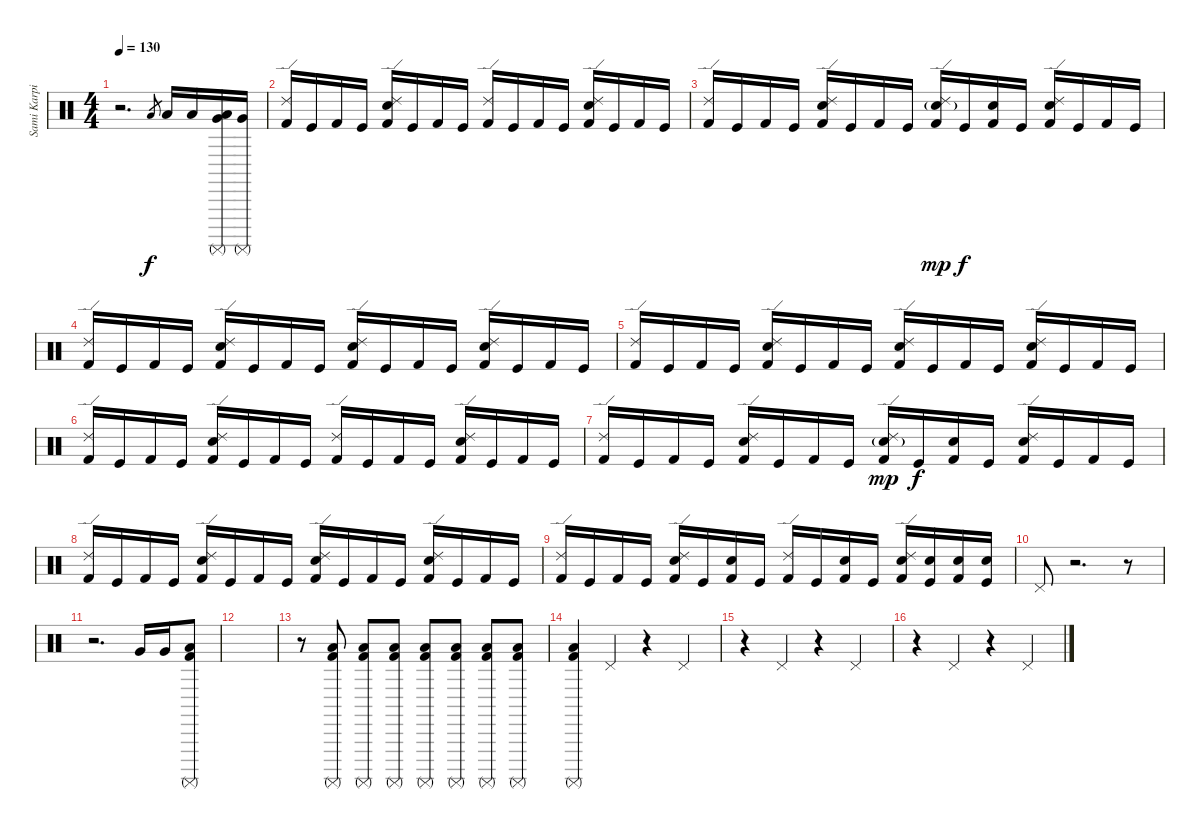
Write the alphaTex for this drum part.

\track ("Sami Karpinnen" "Sami Karpi") {instrument percussion}
\staff {score}
\articulation defaults
\ts (4 4)
\tempo 130
\clef neutral
\ks c
r.2{d dy f} "Low Tom (hit)".8{gr} "Low Tom (hit)".16 "Low Tom (hit)".16 ("Surdo (mute)" "Low Tom (hit)" "Very Low Tom (hit)").16 ("Surdo (mute)" "Very Low Tom (hit)").16 |
("Ride (edge) 2" "Kick (hit) 2").16 "Kick (hit)".16 "Kick (hit) 2".16 "Kick (hit)".16 ("Ride (edge) 2" "Electric Snare (hit)" "Kick (hit) 2").16 "Kick (hit)".16 "Kick (hit) 2".16 "Kick (hit)".16 ("Ride (edge) 2" "Kick (hit) 2").16 "Kick (hit)".16 "Kick (hit) 2".16 "Kick (hit)".16 ("Ride (edge) 2" "Electric Snare (hit)" "Kick (hit) 2").16 "Kick (hit)".16 "Kick (hit) 2".16 "Kick (hit)".16 |
("Ride (edge) 2" "Kick (hit) 2").16 "Kick (hit)".16 "Kick (hit) 2".16 "Kick (hit)".16 ("Ride (edge) 2" "Electric Snare (hit)" "Kick (hit) 2").16 "Kick (hit)".16 "Kick (hit) 2".16 "Kick (hit)".16 ("Ride (edge) 2" "Electric Snare (hit)"{g} "Kick (hit) 2").16{dy mp} "Kick (hit)".16{dy f} ("Electric Snare (hit)" "Kick (hit) 2").16 "Kick (hit)".16 ("Ride (edge) 2" "Electric Snare (hit)" "Kick (hit) 2").16 "Kick (hit)".16 "Kick (hit) 2".16 "Kick (hit)".16 |
("Ride (edge) 2" "Kick (hit) 2").16 "Kick (hit)".16 "Kick (hit) 2".16 "Kick (hit)".16 ("Ride (edge) 2" "Electric Snare (hit)" "Kick (hit) 2").16 "Kick (hit)".16 "Kick (hit) 2".16 "Kick (hit)".16 ("Ride (edge) 2" "Electric Snare (hit)" "Kick (hit) 2").16 "Kick (hit)".16 "Kick (hit) 2".16 "Kick (hit)".16 ("Ride (edge) 2" "Electric Snare (hit)" "Kick (hit) 2").16 "Kick (hit)".16 "Kick (hit) 2".16 "Kick (hit)".16 |
("Ride (edge) 2" "Kick (hit) 2").16 "Kick (hit)".16 "Kick (hit) 2".16 "Kick (hit)".16 ("Ride (edge) 2" "Electric Snare (hit)" "Kick (hit) 2").16 "Kick (hit)".16 "Kick (hit) 2".16 "Kick (hit)".16 ("Ride (edge) 2" "Electric Snare (hit)" "Kick (hit) 2").16 "Kick (hit)".16 "Kick (hit) 2".16 "Kick (hit)".16 ("Ride (edge) 2" "Electric Snare (hit)" "Kick (hit) 2").16 "Kick (hit)".16 "Kick (hit) 2".16 "Kick (hit)".16 |
("Ride (edge) 2" "Kick (hit) 2").16 "Kick (hit)".16 "Kick (hit) 2".16 "Kick (hit)".16 ("Ride (edge) 2" "Electric Snare (hit)" "Kick (hit) 2").16 "Kick (hit)".16 "Kick (hit) 2".16 "Kick (hit)".16 ("Ride (edge) 2" "Kick (hit) 2").16 "Kick (hit)".16 "Kick (hit) 2".16 "Kick (hit)".16 ("Ride (edge) 2" "Electric Snare (hit)" "Kick (hit) 2").16 "Kick (hit)".16 "Kick (hit) 2".16 "Kick (hit)".16 |
("Ride (edge) 2" "Kick (hit) 2").16 "Kick (hit)".16 "Kick (hit) 2".16 "Kick (hit)".16 ("Ride (edge) 2" "Electric Snare (hit)" "Kick (hit) 2").16 "Kick (hit)".16 "Kick (hit) 2".16 "Kick (hit)".16 ("Ride (edge) 2" "Electric Snare (hit)"{g} "Kick (hit) 2").16{dy mp} "Kick (hit)".16{dy f} ("Electric Snare (hit)" "Kick (hit) 2").16 "Kick (hit)".16 ("Ride (edge) 2" "Electric Snare (hit)" "Kick (hit) 2").16 "Kick (hit)".16 "Kick (hit) 2".16 "Kick (hit)".16 |
("Ride (edge) 2" "Kick (hit) 2").16 "Kick (hit)".16 "Kick (hit) 2".16 "Kick (hit)".16 ("Ride (edge) 2" "Electric Snare (hit)" "Kick (hit) 2").16 "Kick (hit)".16 "Kick (hit) 2".16 "Kick (hit)".16 ("Ride (edge) 2" "Electric Snare (hit)" "Kick (hit) 2").16 "Kick (hit)".16 "Kick (hit) 2".16 "Kick (hit)".16 ("Ride (edge) 2" "Electric Snare (hit)" "Kick (hit) 2").16 "Kick (hit)".16 "Kick (hit) 2".16 "Kick (hit)".16 |
("Ride (edge) 2" "Kick (hit) 2").16 "Kick (hit)".16 "Kick (hit) 2".16 "Kick (hit)".16 ("Ride (edge) 2" "Electric Snare (hit)" "Kick (hit) 2").16 "Kick (hit)".16 ("Electric Snare (hit)" "Kick (hit) 2").16 "Kick (hit)".16 ("Ride (edge) 2" "Kick (hit) 2").16 "Kick (hit)".16 ("Electric Snare (hit)" "Kick (hit) 2").16 "Kick (hit)".16 ("Ride (edge) 2" "Electric Snare (hit)" "Kick (hit) 2").16 ("Electric Snare (hit)" "Kick (hit)").16 ("Electric Snare (hit)" "Kick (hit) 2").16 ("Electric Snare (hit)" "Kick (hit)").16 |
"Pedal Hi-Hat (hit)".8 r.2{d} r.8 |
r.2{d} "Very Low Tom (hit)".16 "Very Low Tom (hit)".16 ("Surdo (mute)" "Low Floor Tom (hit)" "Kick (hit) 2").8 |
|
r.8 ("Surdo (mute)" "Low Floor Tom (hit)" "Kick (hit) 2").8 ("Surdo (mute)" "Low Floor Tom (hit)" "Kick (hit) 2").8 ("Surdo (mute)" "Low Floor Tom (hit)" "Kick (hit) 2").8 ("Surdo (mute)" "Low Floor Tom (hit)" "Kick (hit) 2").8 ("Surdo (mute)" "Low Floor Tom (hit)" "Kick (hit) 2").8 ("Surdo (mute)" "Low Floor Tom (hit)" "Kick (hit) 2").8 ("Surdo (mute)" "Low Floor Tom (hit)" "Kick (hit) 2").8 |
("Surdo (mute)" "Low Floor Tom (hit)" "Kick (hit) 2").4 "Pedal Hi-Hat (hit)".4 r.4 "Pedal Hi-Hat (hit)".4 |
r.4 "Pedal Hi-Hat (hit)".4 r.4 "Pedal Hi-Hat (hit)".4 |
r.4 "Pedal Hi-Hat (hit)".4 r.4 "Pedal Hi-Hat (hit)".4
